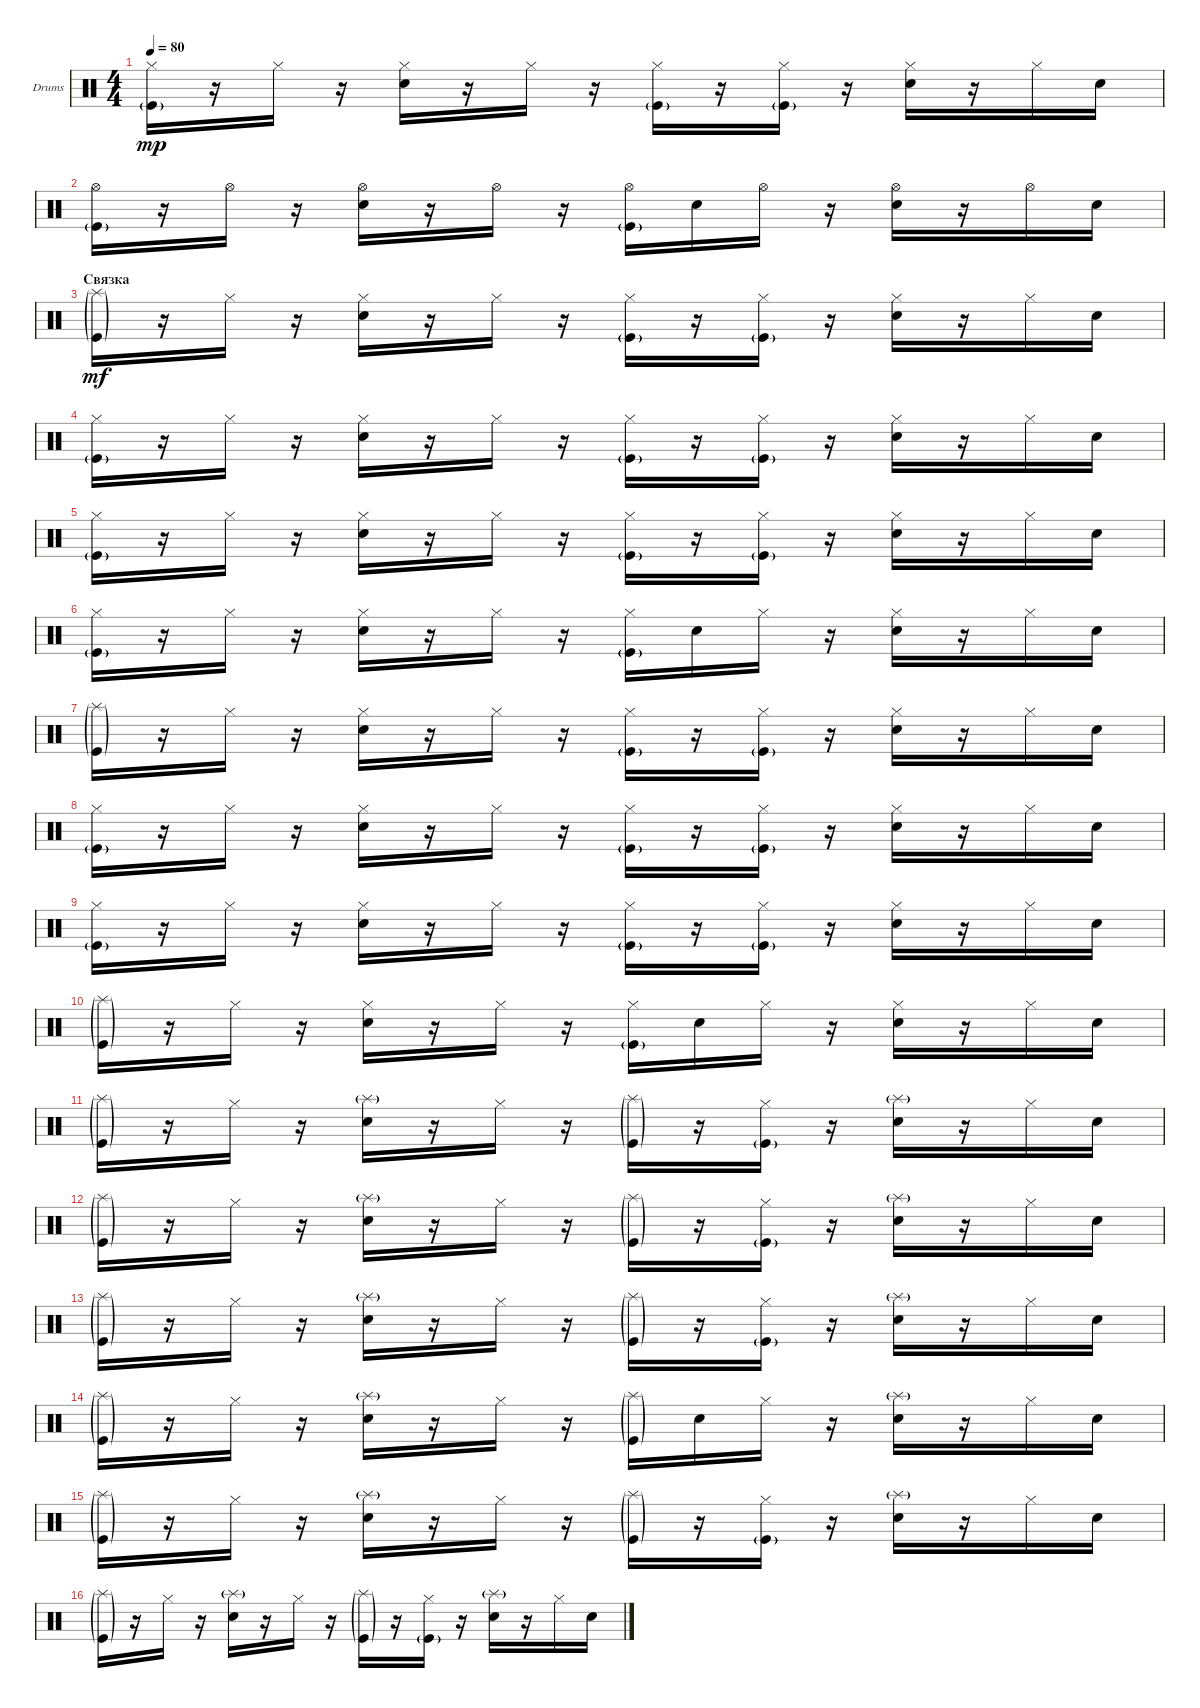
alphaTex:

\defaultSystemsLayout 4
\bracketExtendMode groupsimilarinstruments
\firstSystemTrackNameOrientation horizontal
\otherSystemsTrackNameOrientation horizontal
\track ("Drumkit" "Drums") {instrument percussion}
\staff {score}
\articulation defaults
\ts (4 4)
\tempo 80
\clef neutral
\ks c
("Kick (hit)"{g} "Hi-Hat (closed)").16{dy mp} r.16 "Hi-Hat (closed)".16 r.16 ("Hi-Hat (closed)" "Snare (hit) 2").16 r.16 "Hi-Hat (closed)".16 r.16 ("Kick (hit)"{g} "Hi-Hat (closed)").16 r.16 ("Kick (hit)"{g} "Hi-Hat (closed)").16 r.16 ("Hi-Hat (closed)" "Snare (hit) 2").16 r.16 "Hi-Hat (closed)".16 "Snare (hit) 2".16 |
("Kick (hit)"{g} "Hi-Hat (open)").16 r.16 "Hi-Hat (open)".16 r.16 ("Hi-Hat (open)" "Snare (hit) 2").16 r.16 "Hi-Hat (open)".16 r.16 ("Hi-Hat (open)" "Kick (hit)"{g}).16 "Snare (hit) 2".16 "Hi-Hat (open)".16 r.16 ("Hi-Hat (open)" "Snare (hit) 2").16 r.16 "Hi-Hat (open)".16 "Snare (hit) 2".16 |
\section ("" "Связка")
("Kick (hit)"{g} "Splash (hit)"{g}).16{dy mf} r.16 "Hi-Hat (closed)".16 r.16 ("Hi-Hat (closed)" "Snare (hit) 2").16 r.16 "Hi-Hat (closed)".16 r.16 ("Kick (hit)"{g} "Hi-Hat (closed)").16 r.16 ("Kick (hit)"{g} "Hi-Hat (closed)").16 r.16 ("Hi-Hat (closed)" "Snare (hit) 2").16 r.16 "Hi-Hat (closed)".16 "Snare (hit) 2".16 |
("Kick (hit)"{g} "Hi-Hat (closed)").16 r.16 "Hi-Hat (closed)".16 r.16 ("Hi-Hat (closed)" "Snare (hit) 2").16 r.16 "Hi-Hat (closed)".16 r.16 ("Kick (hit)"{g} "Hi-Hat (closed)").16 r.16 ("Kick (hit)"{g} "Hi-Hat (closed)").16 r.16 ("Hi-Hat (closed)" "Snare (hit) 2").16 r.16 "Hi-Hat (closed)".16 "Snare (hit) 2".16 |
("Kick (hit)"{g} "Hi-Hat (closed)").16 r.16 "Hi-Hat (closed)".16 r.16 ("Hi-Hat (closed)" "Snare (hit) 2").16 r.16 "Hi-Hat (closed)".16 r.16 ("Kick (hit)"{g} "Hi-Hat (closed)").16 r.16 ("Kick (hit)"{g} "Hi-Hat (closed)").16 r.16 ("Hi-Hat (closed)" "Snare (hit) 2").16 r.16 "Hi-Hat (closed)".16 "Snare (hit) 2".16 |
("Kick (hit)"{g} "Hi-Hat (closed)").16 r.16 "Hi-Hat (closed)".16 r.16 ("Hi-Hat (closed)" "Snare (hit) 2").16 r.16 "Hi-Hat (closed)".16 r.16 ("Hi-Hat (closed)" "Kick (hit)"{g}).16 "Snare (hit) 2".16 "Hi-Hat (closed)".16 r.16 ("Hi-Hat (closed)" "Snare (hit) 2").16 r.16 "Hi-Hat (closed)".16 "Snare (hit) 2".16 |
("Kick (hit)"{g} "Splash (hit)"{g}).16 r.16 "Hi-Hat (closed)".16 r.16 ("Hi-Hat (closed)" "Snare (hit) 2").16 r.16 "Hi-Hat (closed)".16 r.16 ("Kick (hit)"{g} "Hi-Hat (closed)").16 r.16 ("Kick (hit)"{g} "Hi-Hat (closed)").16 r.16 ("Hi-Hat (closed)" "Snare (hit) 2").16 r.16 "Hi-Hat (closed)".16 "Snare (hit) 2".16 |
("Kick (hit)"{g} "Hi-Hat (closed)").16 r.16 "Hi-Hat (closed)".16 r.16 ("Hi-Hat (closed)" "Snare (hit) 2").16 r.16 "Hi-Hat (closed)".16 r.16 ("Kick (hit)"{g} "Hi-Hat (closed)").16 r.16 ("Kick (hit)"{g} "Hi-Hat (closed)").16 r.16 ("Hi-Hat (closed)" "Snare (hit) 2").16 r.16 "Hi-Hat (closed)".16 "Snare (hit) 2".16 |
("Kick (hit)"{g} "Hi-Hat (closed)").16 r.16 "Hi-Hat (closed)".16 r.16 ("Hi-Hat (closed)" "Snare (hit) 2").16 r.16 "Hi-Hat (closed)".16 r.16 ("Kick (hit)"{g} "Hi-Hat (closed)").16 r.16 ("Kick (hit)"{g} "Hi-Hat (closed)").16 r.16 ("Hi-Hat (closed)" "Snare (hit) 2").16 r.16 "Hi-Hat (closed)".16 "Snare (hit) 2".16 |
("Kick (hit)"{g} "Splash (hit)"{g}).16 r.16 "Hi-Hat (closed)".16 r.16 ("Hi-Hat (closed)" "Snare (hit) 2").16 r.16 "Hi-Hat (closed)".16 r.16 ("Hi-Hat (closed)" "Kick (hit)"{g}).16 "Snare (hit) 2".16 "Hi-Hat (closed)".16 r.16 ("Hi-Hat (closed)" "Snare (hit) 2").16 r.16 "Hi-Hat (closed)".16 "Snare (hit) 2".16 |
("Kick (hit)"{g} "Splash (hit)"{g}).16 r.16 "Hi-Hat (closed)".16 r.16 ("Snare (hit) 2" "Splash (hit)"{g}).16 r.16 "Hi-Hat (closed)".16 r.16 ("Kick (hit)"{g} "Splash (hit)"{g}).16 r.16 ("Kick (hit)"{g} "Hi-Hat (closed)").16 r.16 ("Snare (hit) 2" "Splash (hit)"{g}).16 r.16 "Hi-Hat (closed)".16 "Snare (hit) 2".16 |
("Kick (hit)"{g} "Splash (hit)"{g}).16 r.16 "Hi-Hat (closed)".16 r.16 ("Snare (hit) 2" "Splash (hit)"{g}).16 r.16 "Hi-Hat (closed)".16 r.16 ("Kick (hit)"{g} "Splash (hit)"{g}).16 r.16 ("Kick (hit)"{g} "Hi-Hat (closed)").16 r.16 ("Snare (hit) 2" "Splash (hit)"{g}).16 r.16 "Hi-Hat (closed)".16 "Snare (hit) 2".16 |
("Kick (hit)"{g} "Splash (hit)"{g}).16 r.16 "Hi-Hat (closed)".16 r.16 ("Snare (hit) 2" "Splash (hit)"{g}).16 r.16 "Hi-Hat (closed)".16 r.16 ("Kick (hit)"{g} "Splash (hit)"{g}).16 r.16 ("Kick (hit)"{g} "Hi-Hat (closed)").16 r.16 ("Snare (hit) 2" "Splash (hit)"{g}).16 r.16 "Hi-Hat (closed)".16 "Snare (hit) 2".16 |
("Kick (hit)"{g} "Splash (hit)"{g}).16 r.16 "Hi-Hat (closed)".16 r.16 ("Snare (hit) 2" "Splash (hit)"{g}).16 r.16 "Hi-Hat (closed)".16 r.16 ("Kick (hit)"{g} "Splash (hit)"{g}).16 "Snare (hit) 2".16 "Hi-Hat (closed)".16 r.16 ("Snare (hit) 2" "Splash (hit)"{g}).16 r.16 "Hi-Hat (closed)".16 "Snare (hit) 2".16 |
("Kick (hit)"{g} "Splash (hit)"{g}).16 r.16 "Hi-Hat (closed)".16 r.16 ("Snare (hit) 2" "Splash (hit)"{g}).16 r.16 "Hi-Hat (closed)".16 r.16 ("Kick (hit)"{g} "Splash (hit)"{g}).16 r.16 ("Kick (hit)"{g} "Hi-Hat (closed)").16 r.16 ("Snare (hit) 2" "Splash (hit)"{g}).16 r.16 "Hi-Hat (closed)".16 "Snare (hit) 2".16 |
("Kick (hit)"{g} "Splash (hit)"{g}).16 r.16 "Hi-Hat (closed)".16 r.16 ("Snare (hit) 2" "Splash (hit)"{g}).16 r.16 "Hi-Hat (closed)".16 r.16 ("Kick (hit)"{g} "Splash (hit)"{g}).16 r.16 ("Kick (hit)"{g} "Hi-Hat (closed)").16 r.16 ("Snare (hit) 2" "Splash (hit)"{g}).16 r.16 "Hi-Hat (closed)".16 "Snare (hit) 2".16
